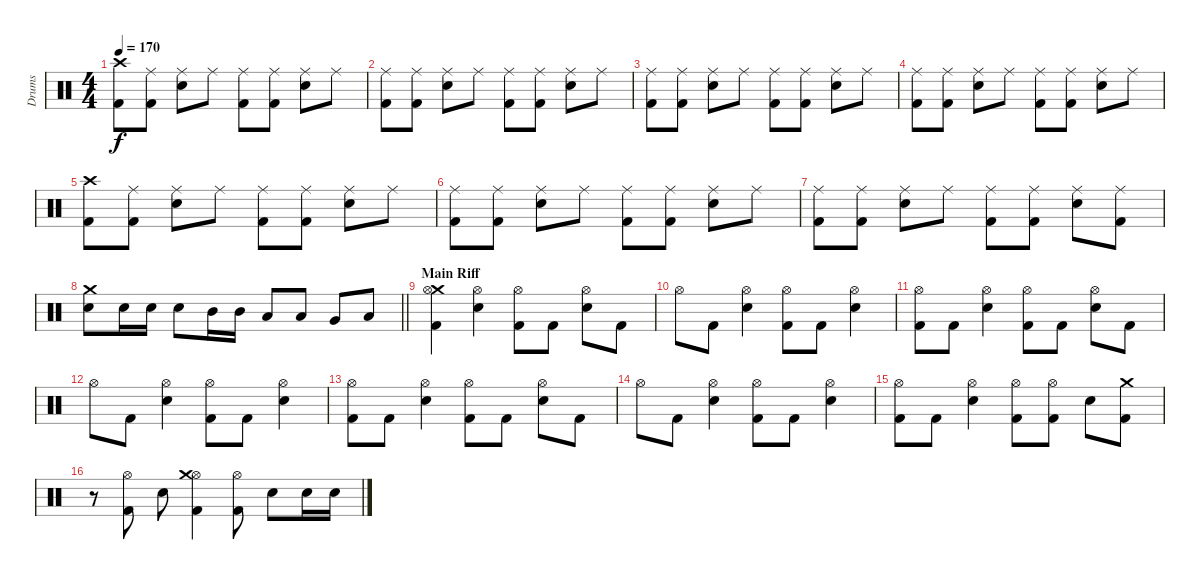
\track ("Drums" "Drums") {instrument percussion}
\staff {score}
\articulation defaults
\ts (4 4)
\tempo 170
\clef neutral
\ks c
("Crash high (hit)" "Kick (hit) 2").8{dy f} ("Ride (middle)" "Kick (hit) 2").8 ("Ride (middle)" "Electric Snare (hit)").8 "Ride (middle)".8 ("Ride (middle)" "Kick (hit) 2").8 ("Ride (middle)" "Kick (hit) 2").8 ("Ride (middle)" "Electric Snare (hit)").8 "Ride (middle)".8 |
("Ride (middle)" "Kick (hit) 2").8 ("Ride (middle)" "Kick (hit) 2").8 ("Ride (middle)" "Electric Snare (hit)").8 "Ride (middle)".8 ("Ride (middle)" "Kick (hit) 2").8 ("Ride (middle)" "Kick (hit) 2").8 ("Ride (middle)" "Electric Snare (hit)").8 "Ride (middle)".8 |
("Ride (middle)" "Kick (hit) 2").8 ("Ride (middle)" "Kick (hit) 2").8 ("Ride (middle)" "Electric Snare (hit)").8 "Ride (middle)".8 ("Ride (middle)" "Kick (hit) 2").8 ("Ride (middle)" "Kick (hit) 2").8 ("Ride (middle)" "Electric Snare (hit)").8 "Ride (middle)".8 |
("Ride (middle)" "Kick (hit) 2").8 ("Ride (middle)" "Kick (hit) 2").8 ("Ride (middle)" "Electric Snare (hit)").8 "Ride (middle)".8 ("Ride (middle)" "Kick (hit) 2").8 ("Ride (middle)" "Kick (hit) 2").8 ("Ride (middle)" "Electric Snare (hit)").8 "Ride (middle)".8 |
("Crash high (hit)" "Kick (hit) 2").8 ("Ride (middle)" "Kick (hit) 2").8 ("Ride (middle)" "Electric Snare (hit)").8 "Ride (middle)".8 ("Ride (middle)" "Kick (hit) 2").8 ("Ride (middle)" "Kick (hit) 2").8 ("Ride (middle)" "Electric Snare (hit)").8 "Ride (middle)".8 |
("Ride (middle)" "Kick (hit) 2").8 ("Ride (middle)" "Kick (hit) 2").8 ("Ride (middle)" "Electric Snare (hit)").8 "Ride (middle)".8 ("Ride (middle)" "Kick (hit) 2").8 ("Ride (middle)" "Kick (hit) 2").8 ("Ride (middle)" "Electric Snare (hit)").8 "Ride (middle)".8 |
("Ride (middle)" "Kick (hit) 2").8 ("Ride (middle)" "Kick (hit) 2").8 ("Ride (middle)" "Electric Snare (hit)").8 "Ride (middle)".8 ("Ride (middle)" "Kick (hit) 2").8 ("Ride (middle)" "Kick (hit) 2").8 ("Ride (middle)" "Electric Snare (hit)").8 ("Ride (middle)" "Kick (hit) 2").8 |
\barLineRight lightlight
("Crash medium (hit)" "Electric Snare (hit)").8 "Electric Snare (hit)".16 "Electric Snare (hit)".16 "Electric Snare (hit)".8 "Mid Tom (hit)".16 "Mid Tom (hit)".16 "Low Tom (hit)".8 "Low Tom (hit)".8 "Very Low Tom (hit)".8 "Low Floor Tom (hit)".8 |
\section ("" "Main Riff")
("Crash medium (hit)" "Hi-Hat (open)" "Kick (hit) 2").4 ("Hi-Hat (open)" "Electric Snare (hit)").4 ("Hi-Hat (open)" "Kick (hit) 2").8 "Kick (hit) 2".8 ("Hi-Hat (open)" "Electric Snare (hit)").8 "Kick (hit) 2".8 |
"Hi-Hat (open)".8 "Kick (hit) 2".8 ("Hi-Hat (open)" "Electric Snare (hit)").4 ("Hi-Hat (open)" "Kick (hit) 2").8 "Kick (hit) 2".8 ("Hi-Hat (open)" "Electric Snare (hit)").4 |
("Hi-Hat (open)" "Kick (hit) 2").8 "Kick (hit) 2".8 ("Hi-Hat (open)" "Electric Snare (hit)").4 ("Hi-Hat (open)" "Kick (hit) 2").8 "Kick (hit) 2".8 ("Hi-Hat (open)" "Electric Snare (hit)").8 "Kick (hit) 2".8 |
"Hi-Hat (open)".8 "Kick (hit) 2".8 ("Hi-Hat (open)" "Electric Snare (hit)").4 ("Hi-Hat (open)" "Kick (hit) 2").8 "Kick (hit) 2".8 ("Hi-Hat (open)" "Electric Snare (hit)").4 |
("Hi-Hat (open)" "Kick (hit) 2").8 "Kick (hit) 2".8 ("Hi-Hat (open)" "Electric Snare (hit)").4 ("Hi-Hat (open)" "Kick (hit) 2").8 "Kick (hit) 2".8 ("Hi-Hat (open)" "Electric Snare (hit)").8 "Kick (hit) 2".8 |
"Hi-Hat (open)".8 "Kick (hit) 2".8 ("Hi-Hat (open)" "Electric Snare (hit)").4 ("Hi-Hat (open)" "Kick (hit) 2").8 "Kick (hit) 2".8 ("Hi-Hat (open)" "Electric Snare (hit)").4 |
("Hi-Hat (open)" "Kick (hit) 2").8 "Kick (hit) 2".8 ("Hi-Hat (open)" "Electric Snare (hit)").4 ("Hi-Hat (open)" "Kick (hit) 2").8 ("Hi-Hat (open)" "Kick (hit) 2").8 "Electric Snare (hit)".8 ("Crash medium (hit)" "Kick (hit) 2").8 |
r.8 ("Hi-Hat (open)" "Kick (hit) 2").8 "Electric Snare (hit)".8 ("Hi-Hat (open)" "Crash medium (hit)" "Kick (hit) 2").4 ("Hi-Hat (open)" "Kick (hit) 2").8 "Electric Snare (hit)".8 "Electric Snare (hit)".16 "Electric Snare (hit)".16
